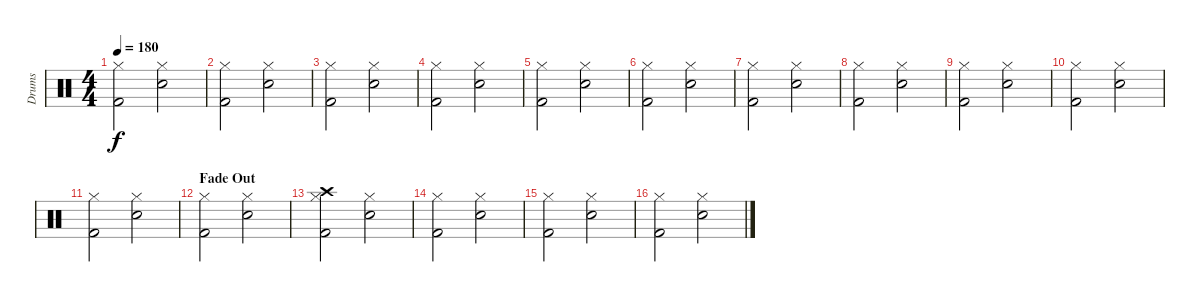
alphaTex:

\track ("Drums" "Drums") {instrument percussion}
\staff {score}
\articulation defaults
\ts (4 4)
\tempo 180
\clef neutral
\ks c
("Hi-Hat (closed)" "Kick (hit) 2").2{dy f} ("Hi-Hat (closed)" "Snare (hit) 2").2 |
("Hi-Hat (closed)" "Kick (hit) 2").2 ("Hi-Hat (closed)" "Snare (hit) 2").2 |
("Hi-Hat (closed)" "Kick (hit) 2").2 ("Hi-Hat (closed)" "Snare (hit) 2").2 |
("Hi-Hat (closed)" "Kick (hit) 2").2 ("Hi-Hat (closed)" "Snare (hit) 2").2 |
("Hi-Hat (closed)" "Kick (hit) 2").2 ("Hi-Hat (closed)" "Snare (hit) 2").2 |
("Hi-Hat (closed)" "Kick (hit) 2").2 ("Hi-Hat (closed)" "Snare (hit) 2").2 |
("Hi-Hat (closed)" "Kick (hit) 2").2 ("Hi-Hat (closed)" "Snare (hit) 2").2 |
("Hi-Hat (closed)" "Kick (hit) 2").2 ("Hi-Hat (closed)" "Snare (hit) 2").2 |
("Hi-Hat (closed)" "Kick (hit) 2").2 ("Hi-Hat (closed)" "Snare (hit) 2").2 |
("Hi-Hat (closed)" "Kick (hit) 2").2 ("Hi-Hat (closed)" "Snare (hit) 2").2 |
("Hi-Hat (closed)" "Kick (hit) 2").2 ("Hi-Hat (closed)" "Snare (hit) 2").2 |
\section ("" "Fade Out")
("Hi-Hat (closed)" "Kick (hit) 2").2 ("Hi-Hat (closed)" "Snare (hit) 2").2 |
("Crash high (hit)" "Hi-Hat (closed)" "Kick (hit) 2").2 ("Hi-Hat (closed)" "Snare (hit) 2").2 |
("Hi-Hat (closed)" "Kick (hit) 2").2 ("Hi-Hat (closed)" "Snare (hit) 2").2 |
("Hi-Hat (closed)" "Kick (hit) 2").2 ("Hi-Hat (closed)" "Snare (hit) 2").2 |
("Hi-Hat (closed)" "Kick (hit) 2").2 ("Hi-Hat (closed)" "Snare (hit) 2").2
